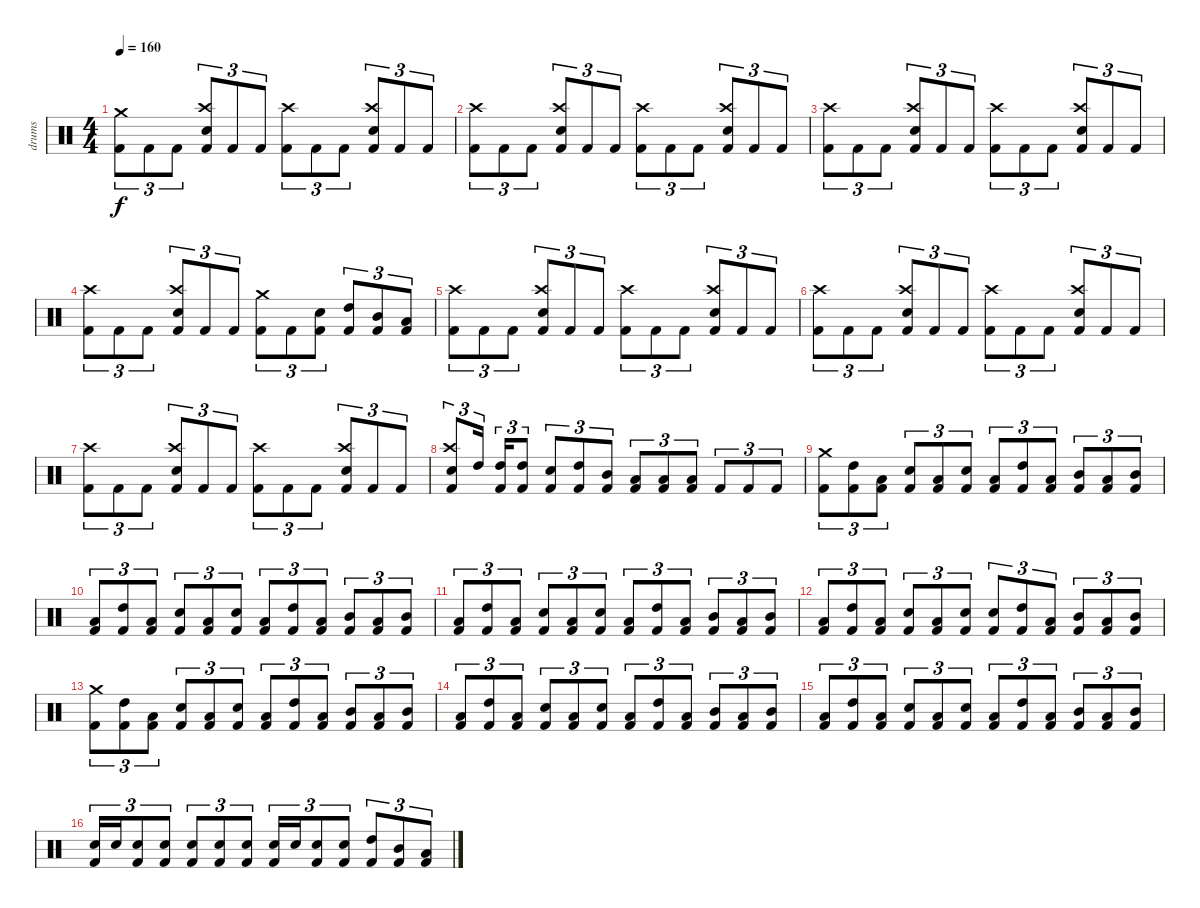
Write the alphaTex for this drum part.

\track ("drums" "drums") {instrument percussion}
\staff {score}
\articulation defaults
\ts (4 4)
\tempo 160
\clef neutral
\ks c
("Crash medium (hit)" "Kick (hit) 2").8{tu (3 2) dy f} "Kick (hit) 2".8{tu (3 2)} "Kick (hit) 2".8{tu (3 2)} ("Crash high (hit)" "Electric Snare (hit)" "Kick (hit) 2").8{tu (3 2)} "Kick (hit) 2".8{tu (3 2)} "Kick (hit) 2".8{tu (3 2)} ("Crash high (hit)" "Kick (hit) 2").8{tu (3 2)} "Kick (hit) 2".8{tu (3 2)} "Kick (hit) 2".8{tu (3 2)} ("Crash high (hit)" "Electric Snare (hit)" "Kick (hit) 2").8{tu (3 2)} "Kick (hit) 2".8{tu (3 2)} "Kick (hit) 2".8{tu (3 2)} |
("Crash high (hit)" "Kick (hit) 2").8{tu (3 2)} "Kick (hit) 2".8{tu (3 2)} "Kick (hit) 2".8{tu (3 2)} ("Crash high (hit)" "Electric Snare (hit)" "Kick (hit) 2").8{tu (3 2)} "Kick (hit) 2".8{tu (3 2)} "Kick (hit) 2".8{tu (3 2)} ("Crash high (hit)" "Kick (hit) 2").8{tu (3 2)} "Kick (hit) 2".8{tu (3 2)} "Kick (hit) 2".8{tu (3 2)} ("Crash high (hit)" "Electric Snare (hit)" "Kick (hit) 2").8{tu (3 2)} "Kick (hit) 2".8{tu (3 2)} "Kick (hit) 2".8{tu (3 2)} |
("Crash high (hit)" "Kick (hit) 2").8{tu (3 2)} "Kick (hit) 2".8{tu (3 2)} "Kick (hit) 2".8{tu (3 2)} ("Crash high (hit)" "Electric Snare (hit)" "Kick (hit) 2").8{tu (3 2)} "Kick (hit) 2".8{tu (3 2)} "Kick (hit) 2".8{tu (3 2)} ("Crash high (hit)" "Kick (hit) 2").8{tu (3 2)} "Kick (hit) 2".8{tu (3 2)} "Kick (hit) 2".8{tu (3 2)} ("Crash high (hit)" "Electric Snare (hit)" "Kick (hit) 2").8{tu (3 2)} "Kick (hit) 2".8{tu (3 2)} "Kick (hit) 2".8{tu (3 2)} |
("Crash high (hit)" "Kick (hit) 2").8{tu (3 2)} "Kick (hit) 2".8{tu (3 2)} "Kick (hit) 2".8{tu (3 2)} ("Crash high (hit)" "Electric Snare (hit)" "Kick (hit) 2").8{tu (3 2)} "Kick (hit) 2".8{tu (3 2)} "Kick (hit) 2".8{tu (3 2)} ("Crash medium (hit)" "Kick (hit) 2").8{tu (3 2)} "Kick (hit) 2".8{tu (3 2)} ("Electric Snare (hit)" "Kick (hit) 2").8{tu (3 2)} ("High Tom (hit)" "Kick (hit) 2").8{tu (3 2)} ("Mid Tom (hit)" "Kick (hit) 2").8{tu (3 2)} ("Low Tom (hit)" "Kick (hit) 2").8{tu (3 2)} |
("Crash high (hit)" "Kick (hit) 2").8{tu (3 2)} "Kick (hit) 2".8{tu (3 2)} "Kick (hit) 2".8{tu (3 2)} ("Crash high (hit)" "Electric Snare (hit)" "Kick (hit) 2").8{tu (3 2)} "Kick (hit) 2".8{tu (3 2)} "Kick (hit) 2".8{tu (3 2)} ("Crash high (hit)" "Kick (hit) 2").8{tu (3 2)} "Kick (hit) 2".8{tu (3 2)} "Kick (hit) 2".8{tu (3 2)} ("Crash high (hit)" "Electric Snare (hit)" "Kick (hit) 2").8{tu (3 2)} "Kick (hit) 2".8{tu (3 2)} "Kick (hit) 2".8{tu (3 2)} |
("Crash high (hit)" "Kick (hit) 2").8{tu (3 2)} "Kick (hit) 2".8{tu (3 2)} "Kick (hit) 2".8{tu (3 2)} ("Crash high (hit)" "Electric Snare (hit)" "Kick (hit) 2").8{tu (3 2)} "Kick (hit) 2".8{tu (3 2)} "Kick (hit) 2".8{tu (3 2)} ("Crash high (hit)" "Kick (hit) 2").8{tu (3 2)} "Kick (hit) 2".8{tu (3 2)} "Kick (hit) 2".8{tu (3 2)} ("Crash high (hit)" "Electric Snare (hit)" "Kick (hit) 2").8{tu (3 2)} "Kick (hit) 2".8{tu (3 2)} "Kick (hit) 2".8{tu (3 2)} |
("Crash high (hit)" "Kick (hit) 2").8{tu (3 2)} "Kick (hit) 2".8{tu (3 2)} "Kick (hit) 2".8{tu (3 2)} ("Crash high (hit)" "Electric Snare (hit)" "Kick (hit) 2").8{tu (3 2)} "Kick (hit) 2".8{tu (3 2)} "Kick (hit) 2".8{tu (3 2)} ("Crash high (hit)" "Kick (hit) 2").8{tu (3 2)} "Kick (hit) 2".8{tu (3 2)} "Kick (hit) 2".8{tu (3 2)} ("Crash high (hit)" "Electric Snare (hit)" "Kick (hit) 2").8{tu (3 2)} "Kick (hit) 2".8{tu (3 2)} "Kick (hit) 2".8{tu (3 2)} |
("Crash high (hit)" "Electric Snare (hit)" "Kick (hit) 2").8{tu (3 2)} "High Tom (hit)".16{tu (3 2)} ("High Tom (hit)" "Kick (hit) 2").16{tu (3 2)} ("High Tom (hit)" "Kick (hit) 2").8{tu (3 2)} ("Electric Snare (hit)" "Kick (hit) 2").8{tu (3 2)} ("High Tom (hit)" "Kick (hit) 2").8{tu (3 2)} ("Mid Tom (hit)" "Kick (hit) 2").8{tu (3 2)} ("Low Tom (hit)" "Kick (hit) 2").8{tu (3 2)} ("Low Tom (hit)" "Kick (hit) 2").8{tu (3 2)} ("Low Tom (hit)" "Kick (hit) 2").8{tu (3 2)} "Kick (hit) 2".8{tu (3 2)} "Kick (hit) 2".8{tu (3 2)} "Kick (hit) 2".8{tu (3 2)} |
("Crash medium (hit)" "Kick (hit) 2").8{tu (3 2)} ("High Tom (hit)" "Kick (hit) 2").8{tu (3 2)} ("Low Tom (hit)" "Kick (hit) 2").8{tu (3 2)} ("Electric Snare (hit)" "Kick (hit) 2").8{tu (3 2)} ("Low Tom (hit)" "Kick (hit) 2").8{tu (3 2)} ("Electric Snare (hit)" "Kick (hit) 2").8{tu (3 2)} ("Low Tom (hit)" "Kick (hit) 2").8{tu (3 2)} ("High Tom (hit)" "Kick (hit) 2").8{tu (3 2)} ("Low Tom (hit)" "Kick (hit) 2").8{tu (3 2)} ("Mid Tom (hit)" "Kick (hit) 2").8{tu (3 2)} ("Low Tom (hit)" "Kick (hit) 2").8{tu (3 2)} ("Mid Tom (hit)" "Kick (hit) 2").8{tu (3 2)} |
("Low Tom (hit)" "Kick (hit) 2").8{tu (3 2)} ("High Tom (hit)" "Kick (hit) 2").8{tu (3 2)} ("Low Tom (hit)" "Kick (hit) 2").8{tu (3 2)} ("Electric Snare (hit)" "Kick (hit) 2").8{tu (3 2)} ("Low Tom (hit)" "Kick (hit) 2").8{tu (3 2)} ("Electric Snare (hit)" "Kick (hit) 2").8{tu (3 2)} ("Low Tom (hit)" "Kick (hit) 2").8{tu (3 2)} ("High Tom (hit)" "Kick (hit) 2").8{tu (3 2)} ("Low Tom (hit)" "Kick (hit) 2").8{tu (3 2)} ("Mid Tom (hit)" "Kick (hit) 2").8{tu (3 2)} ("Low Tom (hit)" "Kick (hit) 2").8{tu (3 2)} ("Mid Tom (hit)" "Kick (hit) 2").8{tu (3 2)} |
("Low Tom (hit)" "Kick (hit) 2").8{tu (3 2)} ("High Tom (hit)" "Kick (hit) 2").8{tu (3 2)} ("Low Tom (hit)" "Kick (hit) 2").8{tu (3 2)} ("Electric Snare (hit)" "Kick (hit) 2").8{tu (3 2)} ("Low Tom (hit)" "Kick (hit) 2").8{tu (3 2)} ("Electric Snare (hit)" "Kick (hit) 2").8{tu (3 2)} ("Low Tom (hit)" "Kick (hit) 2").8{tu (3 2)} ("High Tom (hit)" "Kick (hit) 2").8{tu (3 2)} ("Low Tom (hit)" "Kick (hit) 2").8{tu (3 2)} ("Mid Tom (hit)" "Kick (hit) 2").8{tu (3 2)} ("Low Tom (hit)" "Kick (hit) 2").8{tu (3 2)} ("Mid Tom (hit)" "Kick (hit) 2").8{tu (3 2)} |
("Low Tom (hit)" "Kick (hit) 2").8{tu (3 2)} ("High Tom (hit)" "Kick (hit) 2").8{tu (3 2)} ("Low Tom (hit)" "Kick (hit) 2").8{tu (3 2)} ("Electric Snare (hit)" "Kick (hit) 2").8{tu (3 2)} ("Low Tom (hit)" "Kick (hit) 2").8{tu (3 2)} ("Electric Snare (hit)" "Kick (hit) 2").8{tu (3 2)} ("Electric Snare (hit)" "Kick (hit) 2").8{tu (3 2)} ("High Tom (hit)" "Kick (hit) 2").8{tu (3 2)} ("Low Tom (hit)" "Kick (hit) 2").8{tu (3 2)} ("Mid Tom (hit)" "Kick (hit) 2").8{tu (3 2)} ("Low Tom (hit)" "Kick (hit) 2").8{tu (3 2)} ("Mid Tom (hit)" "Kick (hit) 2").8{tu (3 2)} |
("Crash medium (hit)" "Kick (hit) 2").8{tu (3 2)} ("High Tom (hit)" "Kick (hit) 2").8{tu (3 2)} ("Low Tom (hit)" "Kick (hit) 2").8{tu (3 2)} ("Electric Snare (hit)" "Kick (hit) 2").8{tu (3 2)} ("Low Tom (hit)" "Kick (hit) 2").8{tu (3 2)} ("Electric Snare (hit)" "Kick (hit) 2").8{tu (3 2)} ("Low Tom (hit)" "Kick (hit) 2").8{tu (3 2)} ("High Tom (hit)" "Kick (hit) 2").8{tu (3 2)} ("Low Tom (hit)" "Kick (hit) 2").8{tu (3 2)} ("Mid Tom (hit)" "Kick (hit) 2").8{tu (3 2)} ("Low Tom (hit)" "Kick (hit) 2").8{tu (3 2)} ("Mid Tom (hit)" "Kick (hit) 2").8{tu (3 2)} |
("Low Tom (hit)" "Kick (hit) 2").8{tu (3 2)} ("High Tom (hit)" "Kick (hit) 2").8{tu (3 2)} ("Low Tom (hit)" "Kick (hit) 2").8{tu (3 2)} ("Electric Snare (hit)" "Kick (hit) 2").8{tu (3 2)} ("Low Tom (hit)" "Kick (hit) 2").8{tu (3 2)} ("Electric Snare (hit)" "Kick (hit) 2").8{tu (3 2)} ("Low Tom (hit)" "Kick (hit) 2").8{tu (3 2)} ("High Tom (hit)" "Kick (hit) 2").8{tu (3 2)} ("Low Tom (hit)" "Kick (hit) 2").8{tu (3 2)} ("Mid Tom (hit)" "Kick (hit) 2").8{tu (3 2)} ("Low Tom (hit)" "Kick (hit) 2").8{tu (3 2)} ("Mid Tom (hit)" "Kick (hit) 2").8{tu (3 2)} |
("Low Tom (hit)" "Kick (hit) 2").8{tu (3 2)} ("High Tom (hit)" "Kick (hit) 2").8{tu (3 2)} ("Low Tom (hit)" "Kick (hit) 2").8{tu (3 2)} ("Electric Snare (hit)" "Kick (hit) 2").8{tu (3 2)} ("Low Tom (hit)" "Kick (hit) 2").8{tu (3 2)} ("Electric Snare (hit)" "Kick (hit) 2").8{tu (3 2)} ("Low Tom (hit)" "Kick (hit) 2").8{tu (3 2)} ("High Tom (hit)" "Kick (hit) 2").8{tu (3 2)} ("Low Tom (hit)" "Kick (hit) 2").8{tu (3 2)} ("Mid Tom (hit)" "Kick (hit) 2").8{tu (3 2)} ("Low Tom (hit)" "Kick (hit) 2").8{tu (3 2)} ("Mid Tom (hit)" "Kick (hit) 2").8{tu (3 2)} |
("Electric Snare (hit)" "Kick (hit) 2").16{tu (3 2)} "Electric Snare (hit)".16{tu (3 2)} ("Electric Snare (hit)" "Kick (hit) 2").8{tu (3 2)} ("Electric Snare (hit)" "Kick (hit) 2").8{tu (3 2)} ("Electric Snare (hit)" "Kick (hit) 2").8{tu (3 2)} ("Electric Snare (hit)" "Kick (hit) 2").8{tu (3 2)} ("Electric Snare (hit)" "Kick (hit) 2").8{tu (3 2)} ("Electric Snare (hit)" "Kick (hit) 2").16{tu (3 2)} "Electric Snare (hit)".16{tu (3 2)} ("Electric Snare (hit)" "Kick (hit) 2").8{tu (3 2)} ("Electric Snare (hit)" "Kick (hit) 2").8{tu (3 2)} ("High Tom (hit)" "Kick (hit) 2").8{tu (3 2)} ("Mid Tom (hit)" "Kick (hit) 2").8{tu (3 2)} ("Low Tom (hit)" "Kick (hit) 2").8{tu (3 2)}
